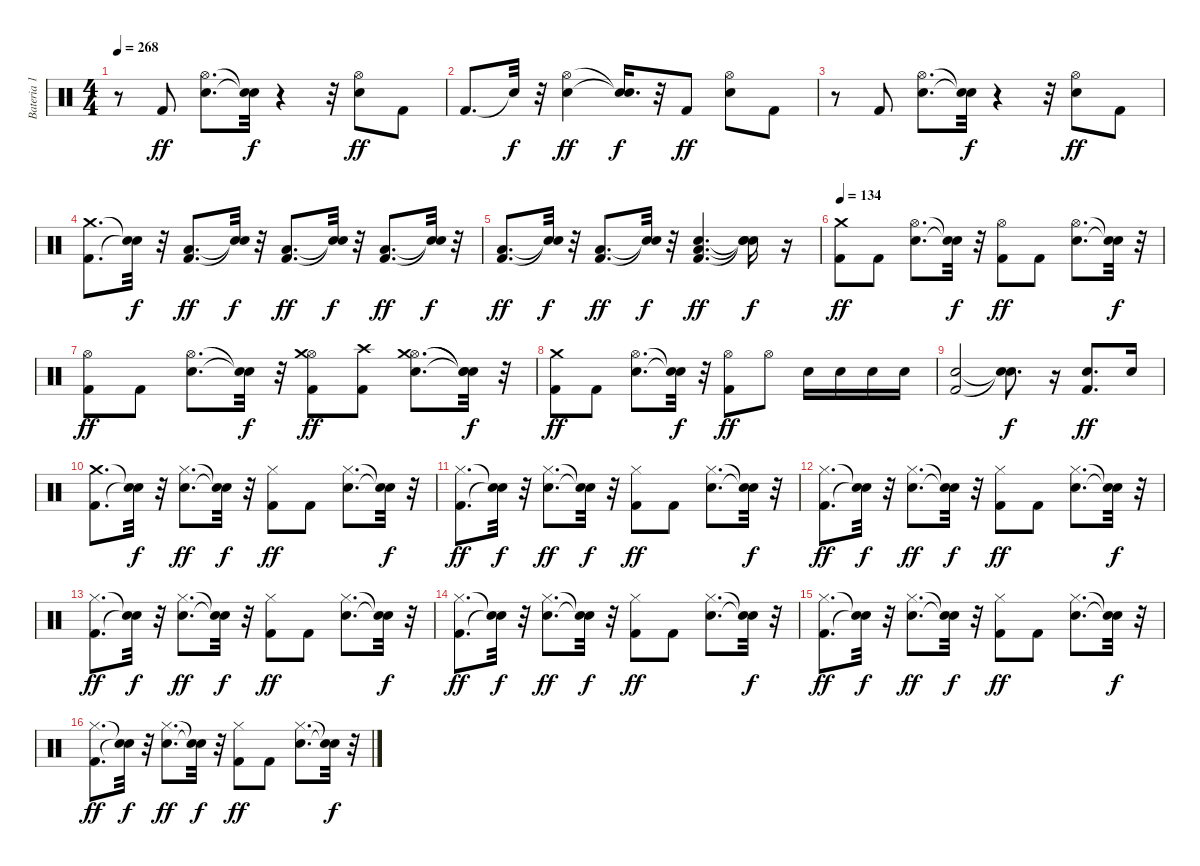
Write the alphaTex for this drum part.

\track ("Bateria 1" "Bateria 1") {instrument percussion}
\staff {score}
\articulation defaults
\ts (4 4)
\tempo 268
\clef neutral
\ks c
r.8{dy f} "Kick (hit) 2".8{dy ff} ("Electric Snare (hit)" "Hi-Hat (open)").8{d} ("Snare (hit)"{t} "Snare (hit)"{t}).32{dy f} r.4 r.32 ("Electric Snare (hit)" "Hi-Hat (open)").8{dy ff} "Kick (hit) 2".8 |
"Kick (hit) 2".8{d} "Snare (hit)"{t}.32{dy f} r.32 ("Electric Snare (hit)" "Hi-Hat (open)").4{dy ff} ("Snare (hit)"{t} "Snare (hit)"{t}).16{d dy f} r.32 "Kick (hit) 2".8{dy ff} ("Electric Snare (hit)" "Hi-Hat (open)").8 "Kick (hit) 2".8 |
r.8 "Kick (hit) 2".8 ("Electric Snare (hit)" "Hi-Hat (open)").8{d} ("Snare (hit)"{t} "Snare (hit)"{t}).32{dy f} r.4 r.32 ("Electric Snare (hit)" "Hi-Hat (open)").8{dy ff} "Kick (hit) 2".8 |
("Kick (hit) 2" "Crash medium (hit)").8{d} ("Snare (hit)"{t} "Snare (hit)"{t}).32{dy f} r.32 ("Kick (hit) 2" "Low Floor Tom (hit)").8{d dy ff} ("Snare (hit)"{t} "Snare (hit)"{t}).32{dy f} r.32 ("Kick (hit) 2" "Low Floor Tom (hit)").8{d dy ff} ("Snare (hit)"{t} "Snare (hit)"{t}).32{dy f} r.32 ("Kick (hit) 2" "Low Floor Tom (hit)").8{d dy ff} ("Snare (hit)"{t} "Snare (hit)"{t}).32{dy f} r.32 |
("Kick (hit) 2" "Low Floor Tom (hit)").8{d dy ff} ("Snare (hit)"{t} "Snare (hit)"{t}).32{dy f} r.32 ("Kick (hit) 2" "Low Floor Tom (hit)").8{d dy ff} ("Snare (hit)"{t} "Snare (hit)"{t}).32{dy f} r.32 ("Kick (hit) 2" "Electric Snare (hit)" "Low Floor Tom (hit)").4{d dy ff} ("Snare (hit)"{t} "Snare (hit)"{t} "Snare (hit)"{t}).16{dy f} r.16 |
\tempo 134
("Kick (hit) 2" "Crash medium (hit)").8{dy ff} "Kick (hit) 2".8 ("Electric Snare (hit)" "Hi-Hat (open)").8{d} ("Snare (hit)"{t} "Snare (hit)"{t}).32{dy f} r.32 ("Kick (hit) 2" "Hi-Hat (open)").8{dy ff} "Kick (hit) 2".8 ("Electric Snare (hit)" "Hi-Hat (open)").8{d} ("Snare (hit)"{t} "Snare (hit)"{t}).32{dy f} r.32 |
("Kick (hit) 2" "Hi-Hat (open)").8{dy ff} "Kick (hit) 2".8 ("Electric Snare (hit)" "Hi-Hat (open)").8{d} ("Snare (hit)"{t} "Snare (hit)"{t}).32{dy f} r.32 ("Kick (hit) 2" "Hi-Hat (open)" "Crash medium (hit)").8{dy ff} ("Kick (hit) 2" "Crash high (hit)").8 ("Electric Snare (hit)" "Hi-Hat (open)" "Crash medium (hit)").8{d} ("Snare (hit)"{t} "Snare (hit)"{t} "Snare (hit)"{t}).32{dy f} r.32 |
("Kick (hit) 2" "Crash medium (hit)").8{dy ff} "Kick (hit) 2".8 ("Electric Snare (hit)" "Hi-Hat (open)").8{d} ("Snare (hit)"{t} "Snare (hit)"{t}).32{dy f} r.32 ("Kick (hit) 2" "Hi-Hat (open)").8{dy ff} "Hi-Hat (open)".8 "Electric Snare (hit)".16 "Electric Snare (hit)".16 "Electric Snare (hit)".16 "Electric Snare (hit)".16 |
("Kick (hit) 2" "Electric Snare (hit)").2 ("Snare (hit)"{t} "Snare (hit)"{t}).8{d dy f} r.16 ("Kick (hit) 2" "Electric Snare (hit)").8{d dy ff} "Electric Snare (hit)".16 |
("Kick (hit) 2" "Crash medium (hit)").8{d} ("Snare (hit)"{t} "Snare (hit)"{t}).32{dy f} r.32 ("Electric Snare (hit)" "Hi-Hat (closed)").8{d dy ff} ("Snare (hit)"{t} "Snare (hit)"{t}).32{dy f} r.32 ("Kick (hit) 2" "Hi-Hat (closed)").8{dy ff} "Kick (hit) 2".8 ("Electric Snare (hit)" "Hi-Hat (closed)").8{d} ("Snare (hit)"{t} "Snare (hit)"{t}).32{dy f} r.32 |
("Kick (hit) 2" "Hi-Hat (closed)").8{d dy ff} ("Snare (hit)"{t} "Snare (hit)"{t}).32{dy f} r.32 ("Electric Snare (hit)" "Hi-Hat (closed)").8{d dy ff} ("Snare (hit)"{t} "Snare (hit)"{t}).32{dy f} r.32 ("Kick (hit) 2" "Hi-Hat (closed)").8{dy ff} "Kick (hit) 2".8 ("Electric Snare (hit)" "Hi-Hat (closed)").8{d} ("Snare (hit)"{t} "Snare (hit)"{t}).32{dy f} r.32 |
("Kick (hit) 2" "Hi-Hat (closed)").8{d dy ff} ("Snare (hit)"{t} "Snare (hit)"{t}).32{dy f} r.32 ("Electric Snare (hit)" "Hi-Hat (closed)").8{d dy ff} ("Snare (hit)"{t} "Snare (hit)"{t}).32{dy f} r.32 ("Kick (hit) 2" "Hi-Hat (closed)").8{dy ff} "Kick (hit) 2".8 ("Electric Snare (hit)" "Hi-Hat (closed)").8{d} ("Snare (hit)"{t} "Snare (hit)"{t}).32{dy f} r.32 |
("Kick (hit) 2" "Hi-Hat (closed)").8{d dy ff} ("Snare (hit)"{t} "Snare (hit)"{t}).32{dy f} r.32 ("Electric Snare (hit)" "Hi-Hat (closed)").8{d dy ff} ("Snare (hit)"{t} "Snare (hit)"{t}).32{dy f} r.32 ("Kick (hit) 2" "Hi-Hat (closed)").8{dy ff} "Kick (hit) 2".8 ("Electric Snare (hit)" "Hi-Hat (closed)").8{d} ("Snare (hit)"{t} "Snare (hit)"{t}).32{dy f} r.32 |
("Kick (hit) 2" "Hi-Hat (closed)").8{d dy ff} ("Snare (hit)"{t} "Snare (hit)"{t}).32{dy f} r.32 ("Electric Snare (hit)" "Hi-Hat (closed)").8{d dy ff} ("Snare (hit)"{t} "Snare (hit)"{t}).32{dy f} r.32 ("Kick (hit) 2" "Hi-Hat (closed)").8{dy ff} "Kick (hit) 2".8 ("Electric Snare (hit)" "Hi-Hat (closed)").8{d} ("Snare (hit)"{t} "Snare (hit)"{t}).32{dy f} r.32 |
("Kick (hit) 2" "Hi-Hat (closed)").8{d dy ff} ("Snare (hit)"{t} "Snare (hit)"{t}).32{dy f} r.32 ("Electric Snare (hit)" "Hi-Hat (closed)").8{d dy ff} ("Snare (hit)"{t} "Snare (hit)"{t}).32{dy f} r.32 ("Kick (hit) 2" "Hi-Hat (closed)").8{dy ff} "Kick (hit) 2".8 ("Electric Snare (hit)" "Hi-Hat (closed)").8{d} ("Snare (hit)"{t} "Snare (hit)"{t}).32{dy f} r.32 |
("Kick (hit) 2" "Hi-Hat (closed)").8{d dy ff} ("Snare (hit)"{t} "Snare (hit)"{t}).32{dy f} r.32 ("Electric Snare (hit)" "Hi-Hat (closed)").8{d dy ff} ("Snare (hit)"{t} "Snare (hit)"{t}).32{dy f} r.32 ("Kick (hit) 2" "Hi-Hat (closed)").8{dy ff} "Kick (hit) 2".8 ("Electric Snare (hit)" "Hi-Hat (closed)").8{d} ("Snare (hit)"{t} "Snare (hit)"{t}).32{dy f} r.32
